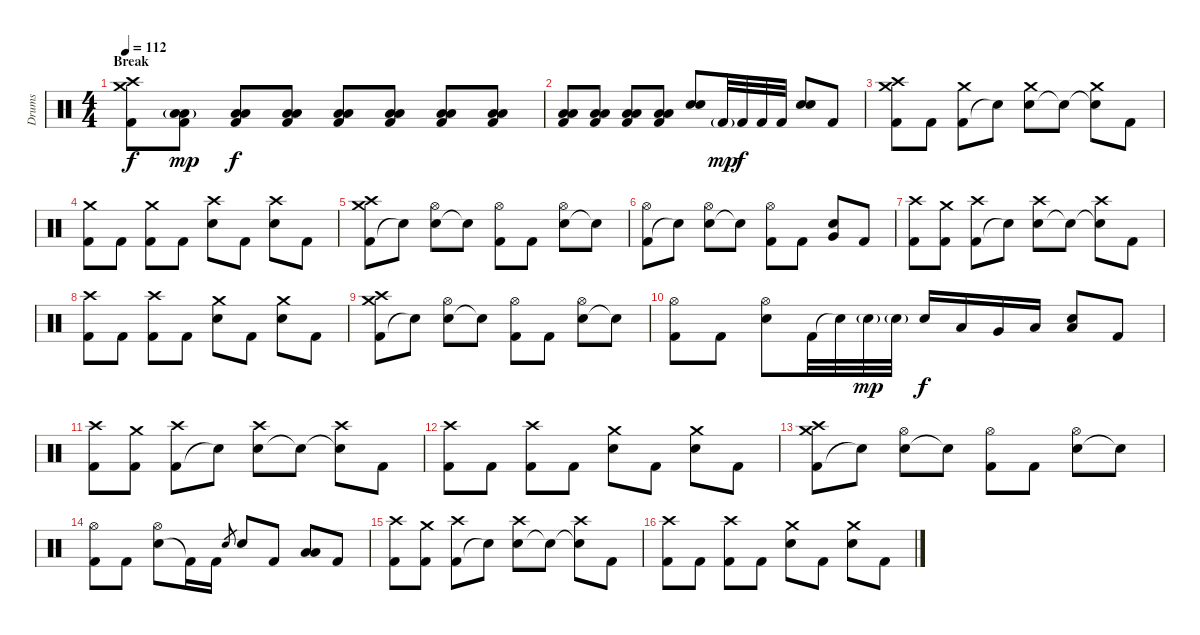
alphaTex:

\track ("Drums" "Drums") {instrument percussion}
\staff {score}
\articulation defaults
\ts (4 4)
\section ("" "Break")
\tempo 112
\clef neutral
\ks c
("Kick (hit) 2" "Crash medium (hit)" "Crash high (hit)").8{dy f} ("Kick (hit) 2" "Low Tom (hit)"{g} "Low Floor Tom (hit)"{g}).8{dy mp} ("Kick (hit) 2" "Low Tom (hit)" "Low Floor Tom (hit)").8{dy f} ("Kick (hit) 2" "Low Tom (hit)" "Low Floor Tom (hit)").8 ("Kick (hit) 2" "Low Tom (hit)" "Low Floor Tom (hit)").8 ("Kick (hit) 2" "Low Tom (hit)" "Low Floor Tom (hit)").8 ("Kick (hit) 2" "Low Tom (hit)" "Low Floor Tom (hit)").8 ("Kick (hit) 2" "Low Tom (hit)" "Low Floor Tom (hit)").8 |
("Kick (hit) 2" "Low Tom (hit)" "Low Floor Tom (hit)").8 ("Kick (hit) 2" "Low Tom (hit)" "Low Floor Tom (hit)").8 ("Kick (hit) 2" "Low Tom (hit)" "Low Floor Tom (hit)").8 ("Kick (hit) 2" "Low Tom (hit)" "Low Floor Tom (hit)").8 ("Electric Snare (hit)" "Electric Snare (hit)").8 "Kick (hit) 2"{g}.32{dy mp} "Kick (hit) 2".32{dy f} "Kick (hit) 2".32 "Kick (hit) 2".32 ("Electric Snare (hit)" "Electric Snare (hit)").8 "Kick (hit) 2".8 |
("Kick (hit) 2" "Crash medium (hit)" "Crash high (hit)").8 "Kick (hit) 2".8 ("Kick (hit) 2" "Crash medium (hit)").8 "Snare (hit)"{t}.8 ("Electric Snare (hit)" "Crash medium (hit)").8 "Snare (hit)"{t}.8 ("Snare (hit)"{t} "Crash medium (hit)").8 "Kick (hit) 2".8 |
("Kick (hit) 2" "Crash medium (hit)").8 "Kick (hit) 2".8 ("Kick (hit) 2" "Crash medium (hit)").8 "Kick (hit) 2".8 ("Electric Snare (hit)" "Crash high (hit)").8 "Kick (hit) 2".8 ("Electric Snare (hit)" "Crash high (hit)").8 "Kick (hit) 2".8 |
("Kick (hit) 2" "Crash medium (hit)" "Crash high (hit)").8 "Snare (hit)"{t}.8 ("Electric Snare (hit)" "Hi-Hat (open)").8 "Snare (hit)"{t}.8 ("Kick (hit) 2" "Hi-Hat (open)").8 "Kick (hit) 2".8 ("Electric Snare (hit)" "Hi-Hat (open)").8 "Snare (hit)"{t}.8 |
("Kick (hit) 2" "Hi-Hat (open)").8 "Snare (hit)"{t}.8 ("Electric Snare (hit)" "Hi-Hat (open)").8 "Snare (hit)"{t}.8 ("Kick (hit) 2" "Hi-Hat (open)").8 "Kick (hit) 2".8 ("Electric Snare (hit)" "Very Low Tom (hit)").8 "Kick (hit) 2".8 |
("Kick (hit) 2" "Crash high (hit)").8 ("Kick (hit) 2" "Crash medium (hit)").8 ("Kick (hit) 2" "Crash high (hit)").8 "Snare (hit)"{t}.8 ("Electric Snare (hit)" "Crash high (hit)").8 "Snare (hit)"{t}.8 ("Snare (hit)"{t} "Crash high (hit)").8 "Kick (hit) 2".8 |
("Kick (hit) 2" "Crash high (hit)").8 "Kick (hit) 2".8 ("Kick (hit) 2" "Crash high (hit)").8 "Kick (hit) 2".8 ("Electric Snare (hit)" "Crash medium (hit)").8 "Kick (hit) 2".8 ("Electric Snare (hit)" "Crash medium (hit)").8 "Kick (hit) 2".8 |
("Kick (hit) 2" "Crash medium (hit)" "Crash high (hit)").8 "Snare (hit)"{t}.8 ("Electric Snare (hit)" "Hi-Hat (open)").8 "Snare (hit)"{t}.8 ("Kick (hit) 2" "Hi-Hat (open)").8 "Kick (hit) 2".8 ("Electric Snare (hit)" "Hi-Hat (open)").8 "Snare (hit)"{t}.8 |
("Kick (hit) 2" "Hi-Hat (open)").8 "Kick (hit) 2".8 ("Electric Snare (hit)" "Hi-Hat (open)").8 "Kick (hit) 2".32 "Snare (hit)"{t}.32 "Electric Snare (hit)"{g}.32{dy mp} "Electric Snare (hit)"{g}.32 "Electric Snare (hit)".16{dy f} "Low Tom (hit)".16 "Very Low Tom (hit)".16 "Low Floor Tom (hit)".16 ("Electric Snare (hit)" "Low Floor Tom (hit)").8 "Kick (hit) 2".8 |
("Kick (hit) 2" "Crash high (hit)").8 ("Kick (hit) 2" "Crash medium (hit)").8 ("Kick (hit) 2" "Crash high (hit)").8 "Snare (hit)"{t}.8 ("Electric Snare (hit)" "Crash high (hit)").8 "Snare (hit)"{t}.8 ("Snare (hit)"{t} "Crash high (hit)").8 "Kick (hit) 2".8 |
("Kick (hit) 2" "Crash high (hit)").8 "Kick (hit) 2".8 ("Kick (hit) 2" "Crash high (hit)").8 "Kick (hit) 2".8 ("Electric Snare (hit)" "Crash medium (hit)").8 "Kick (hit) 2".8 ("Electric Snare (hit)" "Crash medium (hit)").8 "Kick (hit) 2".8 |
("Kick (hit) 2" "Crash medium (hit)" "Crash high (hit)").8 "Snare (hit)"{t}.8 ("Electric Snare (hit)" "Hi-Hat (open)").8 "Snare (hit)"{t}.8 ("Kick (hit) 2" "Hi-Hat (open)").8 "Kick (hit) 2".8 ("Electric Snare (hit)" "Hi-Hat (open)").8 "Snare (hit)"{t}.8 |
("Kick (hit) 2" "Hi-Hat (open)").8 "Kick (hit) 2".8 ("Electric Snare (hit)" "Hi-Hat (open)").8 "Kick (hit) 2"{t}.16 "Kick (hit) 2".16 "Electric Snare (hit)".8{gr} "Electric Snare (hit)".8 "Kick (hit) 2".8 ("Low Tom (hit)" "Low Floor Tom (hit)").8 "Kick (hit) 2".8 |
("Kick (hit) 2" "Crash high (hit)").8 ("Kick (hit) 2" "Crash medium (hit)").8 ("Kick (hit) 2" "Crash high (hit)").8 "Snare (hit)"{t}.8 ("Electric Snare (hit)" "Crash high (hit)").8 "Snare (hit)"{t}.8 ("Snare (hit)"{t} "Crash high (hit)").8 "Kick (hit) 2".8 |
("Kick (hit) 2" "Crash high (hit)").8 "Kick (hit) 2".8 ("Kick (hit) 2" "Crash high (hit)").8 "Kick (hit) 2".8 ("Electric Snare (hit)" "Crash medium (hit)").8 "Kick (hit) 2".8 ("Electric Snare (hit)" "Crash medium (hit)").8 "Kick (hit) 2".8
